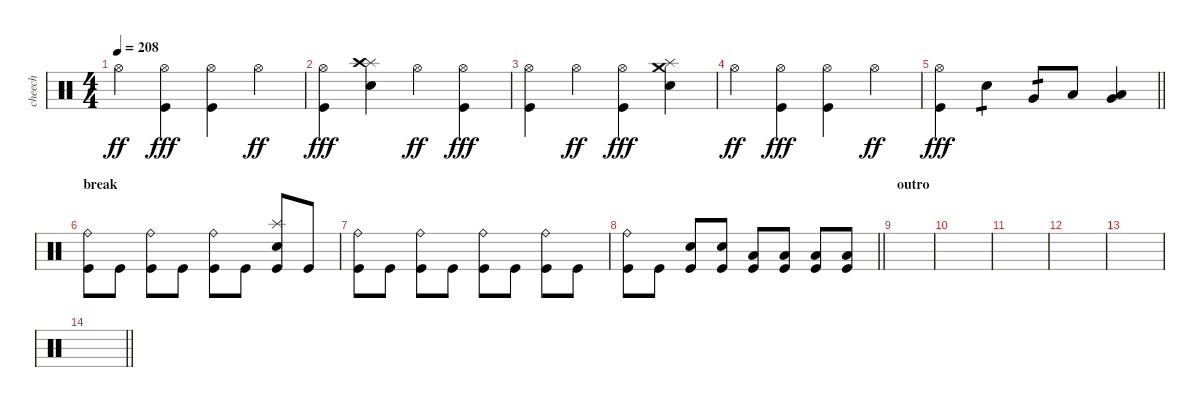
\track ("cheech" "cheech") {instrument percussion}
\staff {score}
\articulation defaults
\ts (4 4)
\tempo 208
\clef neutral
\ks c "Hi-Hat (open)".4{dy ff}
("Hi-Hat (open)" "Kick (hit)").4{dy fff} ("Hi-Hat (open)" "Kick (hit)").4 "Hi-Hat (open)".4{dy ff} |
("Hi-Hat (open)" "Kick (hit)").4{dy fff} ("Splash (hit)" "Crash high (hit)" "Electric Snare (hit)").4 "Hi-Hat (open)".4{dy ff} ("Hi-Hat (open)" "Kick (hit)").4{dy fff} |
("Hi-Hat (open)" "Kick (hit)").4 "Hi-Hat (open)".4{dy ff} ("Hi-Hat (open)" "Kick (hit)").4{dy fff} ("Splash (hit)" "Crash medium (hit)" "Electric Snare (hit)").4 |
"Hi-Hat (open)".4{dy ff} ("Hi-Hat (open)" "Kick (hit)").4{dy fff} ("Hi-Hat (open)" "Kick (hit)").4 "Hi-Hat (open)".4{dy ff} |
\barLineRight lightlight
("Hi-Hat (open)" "Kick (hit)").4{dy fff} "Electric Snare (hit)".4{tp 1} "Very Low Tom (hit)".8{tp 1} "Low Tom (hit)".8 ("Very Low Tom (hit)" "Low Floor Tom (hit)").4 |
\section ("" "break")
("Ride (bell)" "Kick (hit)").8 "Kick (hit)".8 ("Ride (bell)" "Kick (hit)").8 "Kick (hit)".8 ("Ride (bell)" "Kick (hit)").8 "Kick (hit)".8 ("Splash (hit)" "Electric Snare (hit)" "Kick (hit)").8 "Kick (hit)".8 |
("Ride (bell)" "Kick (hit)").8 "Kick (hit)".8 ("Ride (bell)" "Kick (hit)").8 "Kick (hit)".8 ("Ride (bell)" "Kick (hit)").8 "Kick (hit)".8 ("Ride (bell)" "Kick (hit)").8 "Kick (hit)".8 |
\barLineRight lightlight
("Ride (bell)" "Kick (hit)").8 "Kick (hit)".8 ("Electric Snare (hit)" "Kick (hit)").8 ("Electric Snare (hit)" "Kick (hit)").8 ("Low Tom (hit)" "Kick (hit)").8 ("Low Tom (hit)" "Kick (hit)").8 ("Low Floor Tom (hit)" "Kick (hit)").8 ("Low Floor Tom (hit)" "Kick (hit)").8 |
\section ("" "outro")
|
|
|
|
|
\barLineRight lightlight
